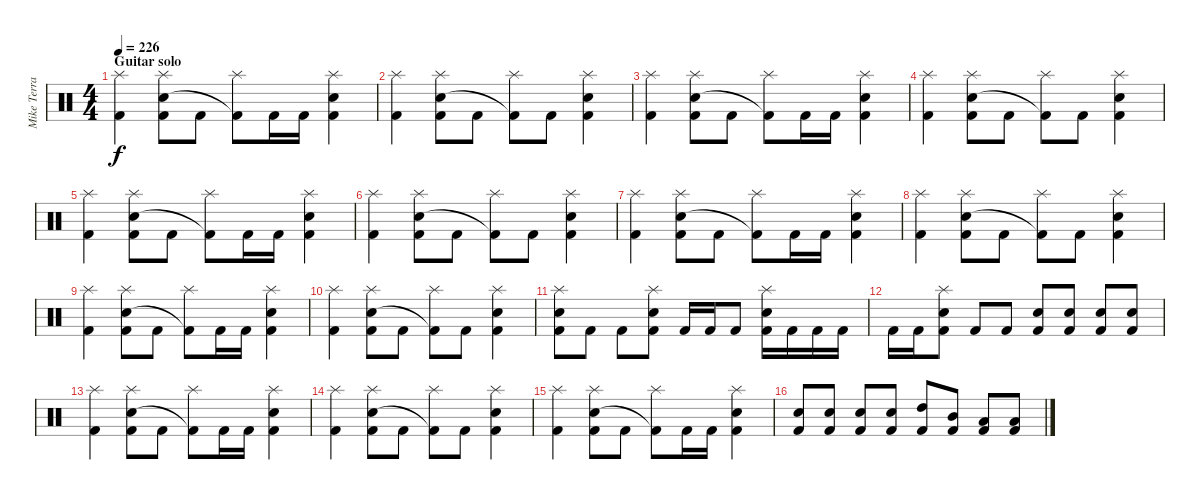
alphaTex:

\track ("Mike Terrana" "Mike Terra") {instrument percussion}
\staff {score}
\articulation defaults
\ts (4 4)
\section ("" "Guitar solo")
\tempo 226
\clef neutral
\ks c
("Splash (hit)" "Kick (hit) 2").4{dy f} ("Splash (hit)" "Snare (hit) 2" "Kick (hit) 2").8 "Kick (hit) 2".8 ("Splash (hit)" "Kick (hit) 2"{t}).8 "Kick (hit) 2".16 "Kick (hit) 2".16 ("Splash (hit)" "Snare (hit) 2" "Kick (hit) 2").4 |
("Splash (hit)" "Kick (hit) 2").4 ("Splash (hit)" "Snare (hit) 2" "Kick (hit) 2").8 "Kick (hit) 2".8 ("Splash (hit)" "Kick (hit) 2"{t}).8 "Kick (hit) 2".8 ("Splash (hit)" "Snare (hit) 2" "Kick (hit) 2").4 |
("Splash (hit)" "Kick (hit) 2").4 ("Splash (hit)" "Snare (hit) 2" "Kick (hit) 2").8 "Kick (hit) 2".8 ("Splash (hit)" "Kick (hit) 2"{t}).8 "Kick (hit) 2".16 "Kick (hit) 2".16 ("Splash (hit)" "Snare (hit) 2" "Kick (hit) 2").4 |
("Splash (hit)" "Kick (hit) 2").4 ("Splash (hit)" "Snare (hit) 2" "Kick (hit) 2").8 "Kick (hit) 2".8 ("Splash (hit)" "Kick (hit) 2"{t}).8 "Kick (hit) 2".8 ("Splash (hit)" "Snare (hit) 2" "Kick (hit) 2").4 |
("Splash (hit)" "Kick (hit) 2").4 ("Splash (hit)" "Snare (hit) 2" "Kick (hit) 2").8 "Kick (hit) 2".8 ("Splash (hit)" "Kick (hit) 2"{t}).8 "Kick (hit) 2".16 "Kick (hit) 2".16 ("Splash (hit)" "Snare (hit) 2" "Kick (hit) 2").4 |
("Splash (hit)" "Kick (hit) 2").4 ("Splash (hit)" "Snare (hit) 2" "Kick (hit) 2").8 "Kick (hit) 2".8 ("Splash (hit)" "Kick (hit) 2"{t}).8 "Kick (hit) 2".8 ("Splash (hit)" "Snare (hit) 2" "Kick (hit) 2").4 |
("Splash (hit)" "Kick (hit) 2").4 ("Splash (hit)" "Snare (hit) 2" "Kick (hit) 2").8 "Kick (hit) 2".8 ("Splash (hit)" "Kick (hit) 2"{t}).8 "Kick (hit) 2".16 "Kick (hit) 2".16 ("Splash (hit)" "Snare (hit) 2" "Kick (hit) 2").4 |
("Splash (hit)" "Kick (hit) 2").4 ("Splash (hit)" "Snare (hit) 2" "Kick (hit) 2").8 "Kick (hit) 2".8 ("Splash (hit)" "Kick (hit) 2"{t}).8 "Kick (hit) 2".8 ("Splash (hit)" "Snare (hit) 2" "Kick (hit) 2").4 |
("Splash (hit)" "Kick (hit) 2").4 ("Splash (hit)" "Snare (hit) 2" "Kick (hit) 2").8 "Kick (hit) 2".8 ("Splash (hit)" "Kick (hit) 2"{t}).8 "Kick (hit) 2".16 "Kick (hit) 2".16 ("Splash (hit)" "Snare (hit) 2" "Kick (hit) 2").4 |
("Splash (hit)" "Kick (hit) 2").4 ("Splash (hit)" "Snare (hit) 2" "Kick (hit) 2").8 "Kick (hit) 2".8 ("Splash (hit)" "Kick (hit) 2"{t}).8 "Kick (hit) 2".8 ("Splash (hit)" "Snare (hit) 2" "Kick (hit) 2").4 |
("Splash (hit)" "Snare (hit) 2" "Kick (hit) 2").8 "Kick (hit) 2".8 "Kick (hit) 2".8 ("Splash (hit)" "Snare (hit) 2" "Kick (hit) 2").8 "Kick (hit) 2".16 "Kick (hit) 2".16 "Kick (hit) 2".8 ("Splash (hit)" "Snare (hit) 2" "Kick (hit) 2").16 "Kick (hit) 2".16 "Kick (hit) 2".16 "Kick (hit) 2".16 |
"Kick (hit) 2".16 "Kick (hit) 2".16 ("Splash (hit)" "Snare (hit) 2" "Kick (hit) 2").8 "Kick (hit) 2".8 "Kick (hit) 2".8 ("Snare (hit) 2" "Kick (hit) 2").8 ("Snare (hit) 2" "Kick (hit) 2").8 ("Snare (hit) 2" "Kick (hit) 2").8 ("Snare (hit) 2" "Kick (hit) 2").8 |
("Splash (hit)" "Kick (hit) 2").4 ("Splash (hit)" "Snare (hit) 2" "Kick (hit) 2").8 "Kick (hit) 2".8 ("Splash (hit)" "Kick (hit) 2"{t}).8 "Kick (hit) 2".16 "Kick (hit) 2".16 ("Splash (hit)" "Snare (hit) 2" "Kick (hit) 2").4 |
("Splash (hit)" "Kick (hit) 2").4 ("Splash (hit)" "Snare (hit) 2" "Kick (hit) 2").8 "Kick (hit) 2".8 ("Splash (hit)" "Kick (hit) 2"{t}).8 "Kick (hit) 2".8 ("Splash (hit)" "Snare (hit) 2" "Kick (hit) 2").4 |
("Splash (hit)" "Kick (hit) 2").4 ("Splash (hit)" "Snare (hit) 2" "Kick (hit) 2").8 "Kick (hit) 2".8 ("Splash (hit)" "Kick (hit) 2"{t}).8 "Kick (hit) 2".16 "Kick (hit) 2".16 ("Splash (hit)" "Snare (hit) 2" "Kick (hit) 2").4 |
("Snare (hit) 2" "Kick (hit) 2").8 ("Snare (hit) 2" "Kick (hit) 2").8 ("Snare (hit) 2" "Kick (hit) 2").8 ("Snare (hit) 2" "Kick (hit) 2").8 ("High Tom (hit)" "Kick (hit) 2").8 ("Mid Tom (hit)" "Kick (hit) 2").8 ("Low Tom (hit)" "Kick (hit) 2").8 ("Low Tom (hit)" "Kick (hit) 2").8
